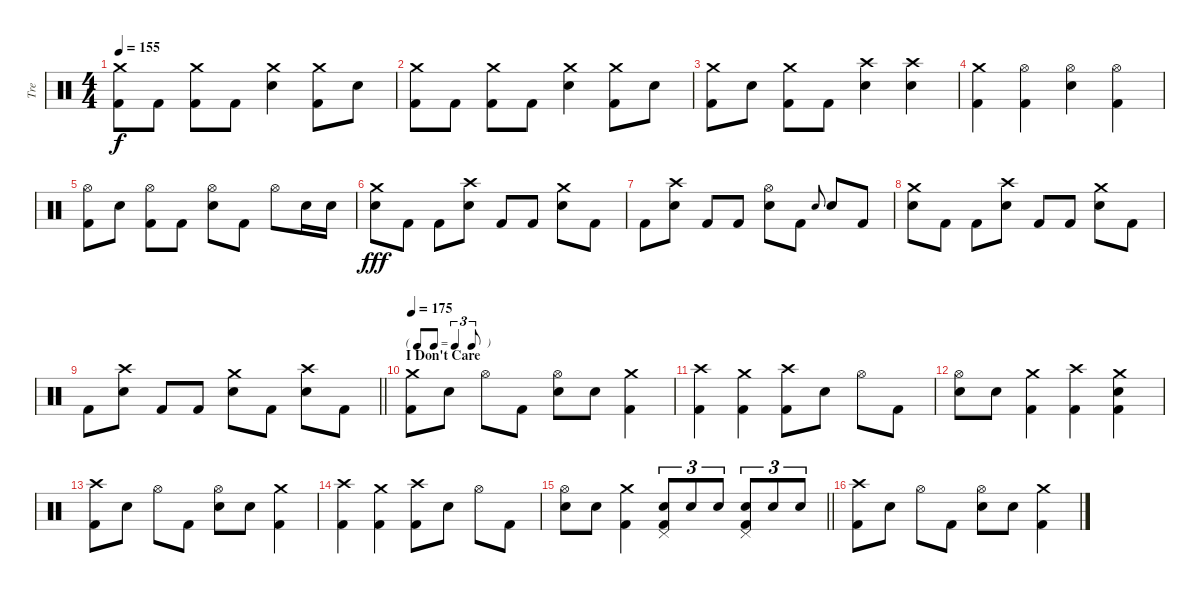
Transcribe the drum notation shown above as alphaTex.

\track ("Tre" "Tre") {instrument percussion}
\staff {score}
\articulation defaults
\ts (4 4)
\tempo 155
\clef neutral
\ks c
("Crash medium (hit)" "Kick (hit) 2").8{dy f} "Kick (hit) 2".8 ("Crash medium (hit)" "Kick (hit) 2").8 "Kick (hit) 2".8 ("Crash medium (hit)" "Snare (hit) 2").4 ("Crash medium (hit)" "Kick (hit) 2").8 "Snare (hit) 2".8 |
("Crash medium (hit)" "Kick (hit) 2").8 "Kick (hit) 2".8 ("Crash medium (hit)" "Kick (hit) 2").8 "Kick (hit) 2".8 ("Crash medium (hit)" "Snare (hit) 2").4 ("Crash medium (hit)" "Kick (hit) 2").8 "Snare (hit) 2".8 |
("Crash medium (hit)" "Kick (hit) 2").8 "Snare (hit) 2".8 ("Crash medium (hit)" "Kick (hit) 2").8 "Kick (hit) 2".8 ("Crash high (hit)" "Snare (hit) 2").4 ("Crash high (hit)" "Snare (hit) 2").4 |
("Crash medium (hit)" "Kick (hit) 2").4 ("Hi-Hat (open)" "Kick (hit) 2").4 ("Hi-Hat (open)" "Snare (hit) 2").4 ("Hi-Hat (open)" "Kick (hit) 2").4 |
("Hi-Hat (open)" "Kick (hit) 2").8 "Snare (hit) 2".8 ("Hi-Hat (open)" "Kick (hit) 2").8 "Kick (hit) 2".8 ("Hi-Hat (open)" "Snare (hit) 2").8 "Kick (hit) 2".8 "Hi-Hat (open)".8 "Snare (hit) 2".16 "Snare (hit) 2".16 |
("Crash medium (hit)" "Snare (hit) 2").8{dy fff} "Kick (hit) 2".8 "Kick (hit) 2".8 ("Crash high (hit)" "Snare (hit) 2").8 "Kick (hit) 2".8 "Kick (hit) 2".8 ("Crash medium (hit)" "Snare (hit) 2").8 "Kick (hit) 2".8 |
"Kick (hit) 2".8 ("Crash high (hit)" "Snare (hit) 2").8 "Kick (hit) 2".8 "Kick (hit) 2".8 ("Hi-Hat (open)" "Snare (hit) 2").8 "Kick (hit) 2".8 "Snare (hit) 2".8{gr onbeat} "Snare (hit) 2".8 "Kick (hit) 2".8 |
("Crash medium (hit)" "Snare (hit) 2").8 "Kick (hit) 2".8 "Kick (hit) 2".8 ("Crash high (hit)" "Snare (hit) 2").8 "Kick (hit) 2".8 "Kick (hit) 2".8 ("Crash medium (hit)" "Snare (hit) 2").8 "Kick (hit) 2".8 |
\barLineRight lightlight "Kick (hit) 2".8
("Crash high (hit)" "Snare (hit) 2").8 "Kick (hit) 2".8 "Kick (hit) 2".8 ("Crash medium (hit)" "Snare (hit) 2").8 "Kick (hit) 2".8 ("Crash high (hit)" "Snare (hit) 2").8 "Kick (hit) 2".8 |
\tf triplet8th
\section ("" "I Don't Care")
\tempo 175
("Crash medium (hit)" "Kick (hit) 2").8 "Snare (hit) 2".8 "Hi-Hat (open)".8 "Kick (hit) 2".8 ("Hi-Hat (open)" "Snare (hit) 2").8 "Snare (hit) 2".8 ("Crash medium (hit)" "Kick (hit) 2").4 |
("Crash high (hit)" "Kick (hit) 2").4 ("Crash medium (hit)" "Kick (hit) 2").4 ("Crash high (hit)" "Kick (hit) 2").8 "Snare (hit) 2".8 "Hi-Hat (open)".8 "Kick (hit) 2".8 |
("Hi-Hat (open)" "Snare (hit) 2").8 "Snare (hit) 2".8 ("Crash medium (hit)" "Kick (hit) 2").4 ("Crash high (hit)" "Kick (hit) 2").4 ("Crash medium (hit)" "Snare (hit) 2" "Kick (hit) 2").4 |
("Crash high (hit)" "Kick (hit) 2").8 "Snare (hit) 2".8 "Hi-Hat (open)".8 "Kick (hit) 2".8 ("Hi-Hat (open)" "Snare (hit) 2").8 "Snare (hit) 2".8 ("Crash medium (hit)" "Kick (hit) 2").4 |
("Crash high (hit)" "Kick (hit) 2").4 ("Crash medium (hit)" "Kick (hit) 2").4 ("Crash high (hit)" "Kick (hit) 2").8 "Snare (hit) 2".8 "Hi-Hat (open)".8 "Kick (hit) 2".8 |
\barLineRight lightlight
("Hi-Hat (open)" "Snare (hit) 2").8 "Snare (hit) 2".8 ("Crash medium (hit)" "Kick (hit) 2").4 ("Snare (hit) 2" "Pedal Hi-Hat (hit)" "Kick (hit) 2").8{tu (3 2)} "Snare (hit) 2".8{tu (3 2)} "Snare (hit) 2".8{tu (3 2)} ("Snare (hit) 2" "Pedal Hi-Hat (hit)" "Kick (hit) 2").8{tu (3 2)} "Snare (hit) 2".8{tu (3 2)} "Snare (hit) 2".8{tu (3 2)} |
("Crash high (hit)" "Kick (hit) 2").8 "Snare (hit) 2".8 "Hi-Hat (open)".8 "Kick (hit) 2".8 ("Hi-Hat (open)" "Snare (hit) 2").8 "Snare (hit) 2".8 ("Crash medium (hit)" "Kick (hit) 2").4
